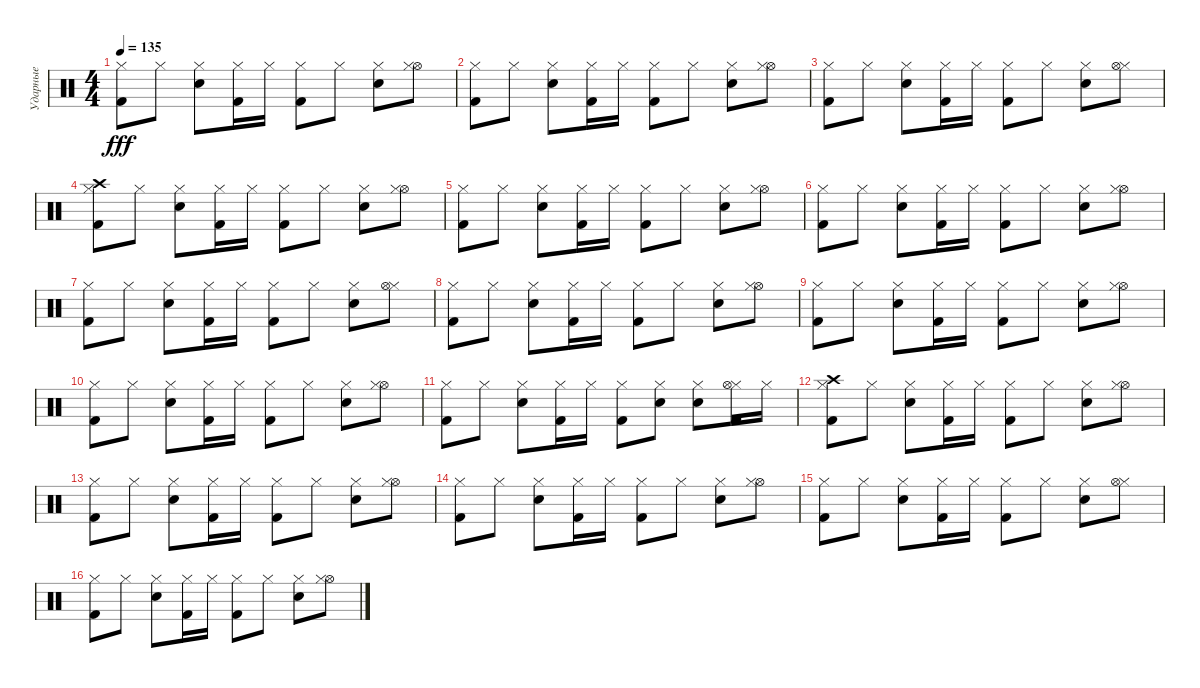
\track ("Ударные" "Ударные") {instrument percussion}
\staff {score}
\articulation defaults
\ts (4 4)
\tempo 135
\clef neutral
\ks c
("Hi-Hat (closed)" "Kick (hit) 2").8{dy fff} "Hi-Hat (closed)".8 ("Hi-Hat (closed)" "Snare (hit) 2").8 ("Kick (hit) 2" "Hi-Hat (closed)").16 "Hi-Hat (closed)".16 ("Hi-Hat (closed)" "Kick (hit) 2").8 "Hi-Hat (closed)".8 ("Hi-Hat (closed)" "Snare (hit) 2").8 ("Hi-Hat (open)" "Hi-Hat (closed)").8 |
("Hi-Hat (closed)" "Kick (hit) 2").8 "Hi-Hat (closed)".8 ("Snare (hit) 2" "Hi-Hat (closed)").8 ("Hi-Hat (closed)" "Kick (hit) 2").16 "Hi-Hat (closed)".16 ("Hi-Hat (closed)" "Kick (hit) 2").8 "Hi-Hat (closed)".8 ("Hi-Hat (closed)" "Snare (hit) 2").8 ("Hi-Hat (open)" "Hi-Hat (closed)").8 |
("Hi-Hat (closed)" "Kick (hit) 2").8 "Hi-Hat (closed)".8 ("Hi-Hat (closed)" "Snare (hit) 2").8 ("Kick (hit) 2" "Hi-Hat (closed)").16 "Hi-Hat (closed)".16 ("Hi-Hat (closed)" "Kick (hit) 2").8 "Hi-Hat (closed)".8 ("Snare (hit) 2" "Hi-Hat (closed)").8 ("Hi-Hat (closed)" "Hi-Hat (open)").8 |
("Crash high (hit)" "Hi-Hat (closed)" "Kick (hit) 2").8 "Hi-Hat (closed)".8 ("Hi-Hat (closed)" "Snare (hit) 2").8 ("Hi-Hat (closed)" "Kick (hit) 2").16 "Hi-Hat (closed)".16 ("Hi-Hat (closed)" "Kick (hit) 2").8 "Hi-Hat (closed)".8 ("Snare (hit) 2" "Hi-Hat (closed)").8 ("Hi-Hat (open)" "Hi-Hat (closed)").8 |
("Hi-Hat (closed)" "Kick (hit) 2").8 "Hi-Hat (closed)".8 ("Hi-Hat (closed)" "Snare (hit) 2").8 ("Kick (hit) 2" "Hi-Hat (closed)").16 "Hi-Hat (closed)".16 ("Hi-Hat (closed)" "Kick (hit) 2").8 "Hi-Hat (closed)".8 ("Hi-Hat (closed)" "Snare (hit) 2").8 ("Hi-Hat (open)" "Hi-Hat (closed)").8 |
("Hi-Hat (closed)" "Kick (hit) 2").8 "Hi-Hat (closed)".8 ("Snare (hit) 2" "Hi-Hat (closed)").8 ("Hi-Hat (closed)" "Kick (hit) 2").16 "Hi-Hat (closed)".16 ("Hi-Hat (closed)" "Kick (hit) 2").8 "Hi-Hat (closed)".8 ("Hi-Hat (closed)" "Snare (hit) 2").8 ("Hi-Hat (open)" "Hi-Hat (closed)").8 |
("Hi-Hat (closed)" "Kick (hit) 2").8 "Hi-Hat (closed)".8 ("Hi-Hat (closed)" "Snare (hit) 2").8 ("Kick (hit) 2" "Hi-Hat (closed)").16 "Hi-Hat (closed)".16 ("Hi-Hat (closed)" "Kick (hit) 2").8 "Hi-Hat (closed)".8 ("Snare (hit) 2" "Hi-Hat (closed)").8 ("Hi-Hat (closed)" "Hi-Hat (open)").8 |
("Hi-Hat (closed)" "Kick (hit) 2").8 "Hi-Hat (closed)".8 ("Hi-Hat (closed)" "Snare (hit) 2").8 ("Hi-Hat (closed)" "Kick (hit) 2").16 "Hi-Hat (closed)".16 ("Hi-Hat (closed)" "Kick (hit) 2").8 "Hi-Hat (closed)".8 ("Snare (hit) 2" "Hi-Hat (closed)").8 ("Hi-Hat (open)" "Hi-Hat (closed)").8 |
("Hi-Hat (closed)" "Kick (hit) 2").8 "Hi-Hat (closed)".8 ("Hi-Hat (closed)" "Snare (hit) 2").8 ("Kick (hit) 2" "Hi-Hat (closed)").16 "Hi-Hat (closed)".16 ("Hi-Hat (closed)" "Kick (hit) 2").8 "Hi-Hat (closed)".8 ("Hi-Hat (closed)" "Snare (hit) 2").8 ("Hi-Hat (open)" "Hi-Hat (closed)").8 |
("Hi-Hat (closed)" "Kick (hit) 2").8 "Hi-Hat (closed)".8 ("Snare (hit) 2" "Hi-Hat (closed)").8 ("Hi-Hat (closed)" "Kick (hit) 2").16 "Hi-Hat (closed)".16 ("Hi-Hat (closed)" "Kick (hit) 2").8 "Hi-Hat (closed)".8 ("Hi-Hat (closed)" "Snare (hit) 2").8 ("Hi-Hat (open)" "Hi-Hat (closed)").8 |
("Hi-Hat (closed)" "Kick (hit) 2").8 "Hi-Hat (closed)".8 ("Hi-Hat (closed)" "Snare (hit) 2").8 ("Kick (hit) 2" "Hi-Hat (closed)").16 "Hi-Hat (closed)".16 ("Hi-Hat (closed)" "Kick (hit) 2").8 ("Hi-Hat (closed)" "Snare (hit) 2").8 ("Snare (hit) 2" "Hi-Hat (closed)").8 ("Hi-Hat (closed)" "Hi-Hat (open)" "Kick (hit) 2").16 "Hi-Hat (closed)".16 |
("Crash high (hit)" "Hi-Hat (closed)" "Kick (hit) 2").8 "Hi-Hat (closed)".8 ("Hi-Hat (closed)" "Snare (hit) 2").8 ("Hi-Hat (closed)" "Kick (hit) 2").16 "Hi-Hat (closed)".16 ("Hi-Hat (closed)" "Kick (hit) 2").8 "Hi-Hat (closed)".8 ("Snare (hit) 2" "Hi-Hat (closed)").8 ("Hi-Hat (open)" "Hi-Hat (closed)").8 |
("Hi-Hat (closed)" "Kick (hit) 2").8 "Hi-Hat (closed)".8 ("Hi-Hat (closed)" "Snare (hit) 2").8 ("Kick (hit) 2" "Hi-Hat (closed)").16 "Hi-Hat (closed)".16 ("Hi-Hat (closed)" "Kick (hit) 2").8 "Hi-Hat (closed)".8 ("Hi-Hat (closed)" "Snare (hit) 2").8 ("Hi-Hat (open)" "Hi-Hat (closed)").8 |
("Hi-Hat (closed)" "Kick (hit) 2").8 "Hi-Hat (closed)".8 ("Snare (hit) 2" "Hi-Hat (closed)").8 ("Hi-Hat (closed)" "Kick (hit) 2").16 "Hi-Hat (closed)".16 ("Hi-Hat (closed)" "Kick (hit) 2").8 "Hi-Hat (closed)".8 ("Hi-Hat (closed)" "Snare (hit) 2").8 ("Hi-Hat (open)" "Hi-Hat (closed)").8 |
("Hi-Hat (closed)" "Kick (hit) 2").8 "Hi-Hat (closed)".8 ("Hi-Hat (closed)" "Snare (hit) 2").8 ("Kick (hit) 2" "Hi-Hat (closed)").16 "Hi-Hat (closed)".16 ("Hi-Hat (closed)" "Kick (hit) 2").8 "Hi-Hat (closed)".8 ("Snare (hit) 2" "Hi-Hat (closed)").8 ("Hi-Hat (closed)" "Hi-Hat (open)").8 |
("Hi-Hat (closed)" "Kick (hit) 2").8 "Hi-Hat (closed)".8 ("Hi-Hat (closed)" "Snare (hit) 2").8 ("Hi-Hat (closed)" "Kick (hit) 2").16 "Hi-Hat (closed)".16 ("Hi-Hat (closed)" "Kick (hit) 2").8 "Hi-Hat (closed)".8 ("Snare (hit) 2" "Hi-Hat (closed)").8 ("Hi-Hat (open)" "Hi-Hat (closed)").8
